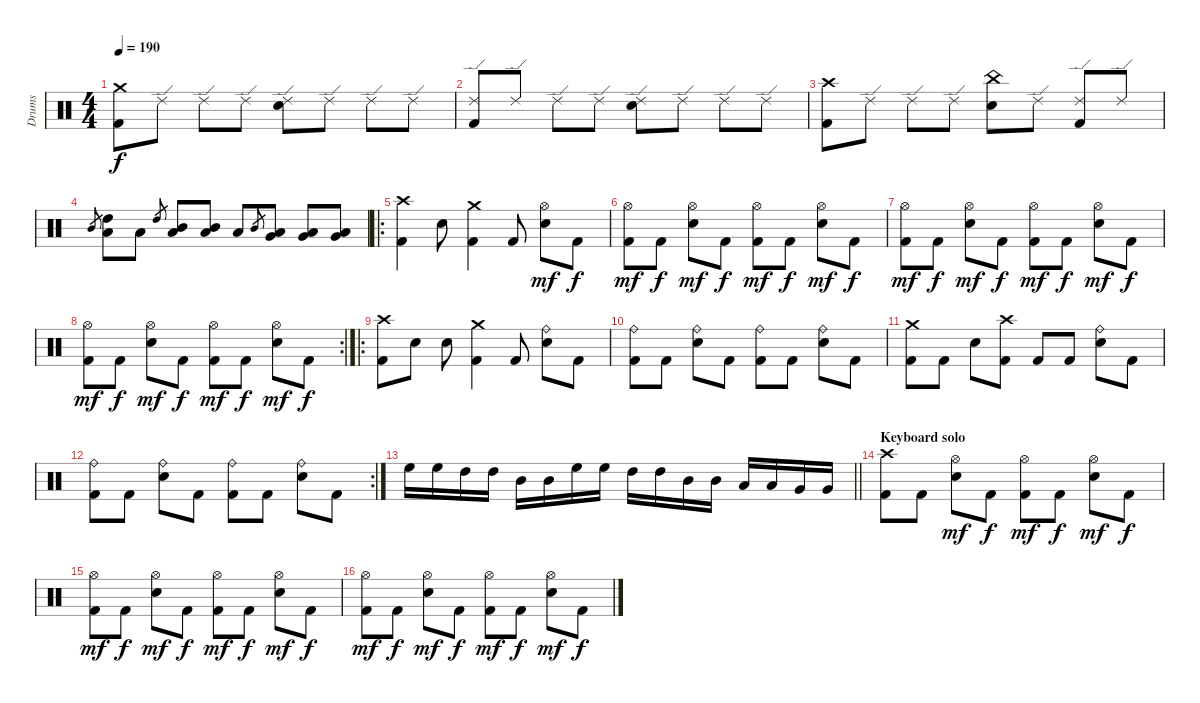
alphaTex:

\track ("Drums" "Drums") {instrument percussion}
\staff {score}
\articulation defaults
\ts (4 4)
\tempo 190
\clef neutral
\ks c
("Crash medium (hit)" "Kick (hit) 2").8{dy f} "Ride (edge) 2".8 "Ride (edge) 2".8 "Ride (edge) 2".8 ("Ride (edge) 2" "Electric Snare (hit)").8 "Ride (edge) 2".8 "Ride (edge) 2".8 "Ride (edge) 2".8 |
("Ride (edge) 2" "Kick (hit) 2").8 "Ride (edge) 2".8 "Ride (edge) 2".8 "Ride (edge) 2".8 ("Ride (edge) 2" "Electric Snare (hit)").8 "Ride (edge) 2".8 "Ride (edge) 2".8 "Ride (edge) 2".8 |
("Crash high (hit)" "Kick (hit) 2").8 "Ride (edge) 2".8 "Ride (edge) 2".8 "Ride (edge) 2".8 ("China (hit)" "Electric Snare (hit)").8 "Ride (edge) 2".8 ("Ride (edge) 2" "Kick (hit) 2").8 "Ride (edge) 2".8 |
"Mid Tom (hit)".8{gr} ("High Tom (hit)" "Low Tom (hit)").8 "Low Tom (hit)".8 "High Tom (hit)".8{gr} ("Mid Tom (hit)" "Low Tom (hit)").8 ("Mid Tom (hit)" "Low Tom (hit)").8 "Low Tom (hit)".8 "Mid Tom (hit)".8{gr} ("Low Tom (hit)" "Very Low Tom (hit)").8 ("Low Tom (hit)" "Very Low Tom (hit)").8 ("Low Floor Tom (hit)" "Very Low Tom (hit)").8 |
\ro
("Crash high (hit)" "Kick (hit) 2").4 "Electric Snare (hit)".8 ("Crash medium (hit)" "Kick (hit) 2").4 "Kick (hit) 2".8 ("Hi-Hat (open)" "Electric Snare (hit)").8{dy mf} "Kick (hit) 2".8{dy f} |
("Hi-Hat (open)" "Kick (hit) 2").8{dy mf} "Kick (hit) 2".8{dy f} ("Hi-Hat (open)" "Electric Snare (hit)").8{dy mf} "Kick (hit) 2".8{dy f} ("Hi-Hat (open)" "Kick (hit) 2").8{dy mf} "Kick (hit) 2".8{dy f} ("Hi-Hat (open)" "Electric Snare (hit)").8{dy mf} "Kick (hit) 2".8{dy f} |
("Hi-Hat (open)" "Kick (hit) 2").8{dy mf} "Kick (hit) 2".8{dy f} ("Hi-Hat (open)" "Electric Snare (hit)").8{dy mf} "Kick (hit) 2".8{dy f} ("Hi-Hat (open)" "Kick (hit) 2").8{dy mf} "Kick (hit) 2".8{dy f} ("Hi-Hat (open)" "Electric Snare (hit)").8{dy mf} "Kick (hit) 2".8{dy f} |
\rc 2
("Hi-Hat (open)" "Kick (hit) 2").8{dy mf} "Kick (hit) 2".8{dy f} ("Hi-Hat (open)" "Electric Snare (hit)").8{dy mf} "Kick (hit) 2".8{dy f} ("Hi-Hat (open)" "Kick (hit) 2").8{dy mf} "Kick (hit) 2".8{dy f} ("Hi-Hat (open)" "Electric Snare (hit)").8{dy mf} "Kick (hit) 2".8{dy f} |
\ro
("Crash high (hit)" "Kick (hit) 2").8 "Electric Snare (hit)".8 "Electric Snare (hit)".8 ("Crash medium (hit)" "Kick (hit) 2").4 "Kick (hit) 2".8 ("Ride (bell)" "Electric Snare (hit)").8 "Kick (hit) 2".8 |
("Ride (bell)" "Kick (hit) 2").8 "Kick (hit) 2".8 ("Ride (bell)" "Electric Snare (hit)").8 "Kick (hit) 2".8 ("Ride (bell)" "Kick (hit) 2").8 "Kick (hit) 2".8 ("Ride (bell)" "Electric Snare (hit)").8 "Kick (hit) 2".8 |
("Crash medium (hit)" "Kick (hit) 2").8 "Kick (hit) 2".8 "Electric Snare (hit)".8 ("Crash high (hit)" "Kick (hit) 2").8 "Kick (hit) 2".8 "Kick (hit) 2".8 ("Ride (bell)" "Electric Snare (hit)").8 "Kick (hit) 2".8 |
\rc 2
("Ride (bell)" "Kick (hit) 2").8 "Kick (hit) 2".8 ("Ride (bell)" "Electric Snare (hit)").8 "Kick (hit) 2".8 ("Ride (bell)" "Kick (hit) 2").8 "Kick (hit) 2".8 ("Ride (bell)" "Electric Snare (hit)").8 "Kick (hit) 2".8 |
\barLineRight lightlight "High Floor Tom (hit)".16 "High Floor Tom (hit)".16 "High Tom (hit)".16 "High Tom (hit)".16 "Mid Tom (hit)".16 "Mid Tom (hit)".16 "High Floor Tom (hit)".16 "High Floor Tom (hit)".16 "High Tom (hit)".16 "High Tom (hit)".16 "Mid Tom (hit)".16 "Mid Tom (hit)".16 "Low Tom (hit)".16 "Low Tom (hit)".16 "Very Low Tom (hit)".16 "Very Low Tom (hit)".16
|
\section ("" "Keyboard solo")
("Crash high (hit)" "Kick (hit) 2").8 "Kick (hit) 2".8 ("Hi-Hat (open)" "Electric Snare (hit)").8{dy mf} "Kick (hit) 2".8{dy f} ("Hi-Hat (open)" "Kick (hit) 2").8{dy mf} "Kick (hit) 2".8{dy f} ("Hi-Hat (open)" "Electric Snare (hit)").8{dy mf} "Kick (hit) 2".8{dy f} |
("Hi-Hat (open)" "Kick (hit) 2").8{dy mf} "Kick (hit) 2".8{dy f} ("Hi-Hat (open)" "Electric Snare (hit)").8{dy mf} "Kick (hit) 2".8{dy f} ("Hi-Hat (open)" "Kick (hit) 2").8{dy mf} "Kick (hit) 2".8{dy f} ("Hi-Hat (open)" "Electric Snare (hit)").8{dy mf} "Kick (hit) 2".8{dy f} |
("Hi-Hat (open)" "Kick (hit) 2").8{dy mf} "Kick (hit) 2".8{dy f} ("Hi-Hat (open)" "Electric Snare (hit)").8{dy mf} "Kick (hit) 2".8{dy f} ("Hi-Hat (open)" "Kick (hit) 2").8{dy mf} "Kick (hit) 2".8{dy f} ("Hi-Hat (open)" "Electric Snare (hit)").8{dy mf} "Kick (hit) 2".8{dy f}
